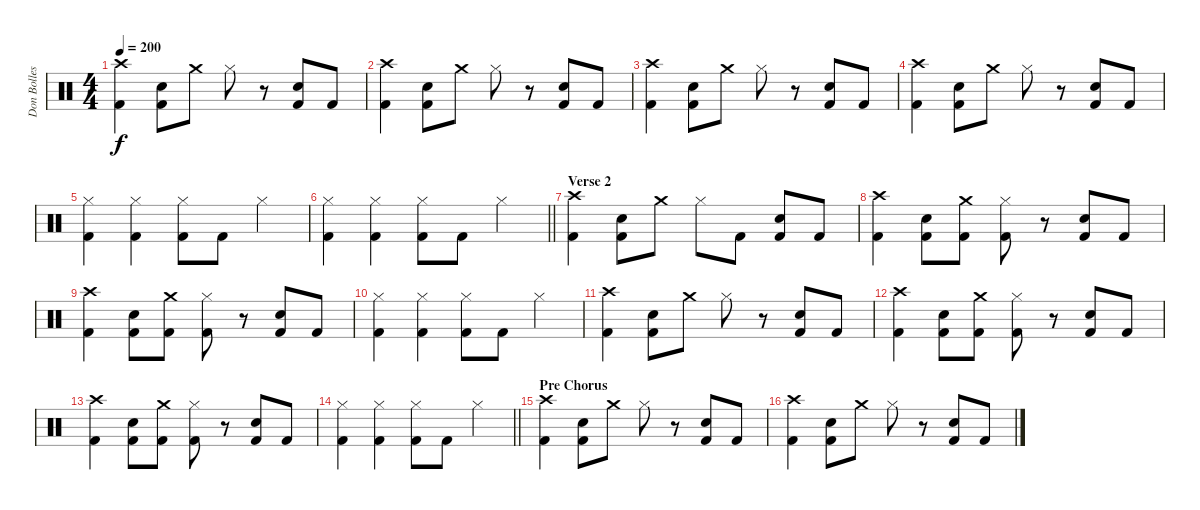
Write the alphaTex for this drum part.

\track ("Don Bolles" "Don Bolles") {instrument percussion}
\staff {score}
\articulation defaults
\ts (4 4)
\tempo 200
\clef neutral
\ks c
("Kick (hit) 2" "Crash high (hit)").4{dy f} ("Snare (hit) 2" "Kick (hit) 2").8 "Crash medium (hit)".8 "Hi-Hat (closed)".8 r.8 ("Kick (hit) 2" "Snare (hit) 2").8 "Kick (hit) 2".8 |
("Kick (hit) 2" "Crash high (hit)").4 ("Snare (hit) 2" "Kick (hit) 2").8 "Crash medium (hit)".8 "Hi-Hat (closed)".8 r.8 ("Kick (hit) 2" "Snare (hit) 2").8 "Kick (hit) 2".8 |
("Kick (hit) 2" "Crash high (hit)").4 ("Snare (hit) 2" "Kick (hit) 2").8 "Crash medium (hit)".8 "Hi-Hat (closed)".8 r.8 ("Kick (hit) 2" "Snare (hit) 2").8 "Kick (hit) 2".8 |
("Kick (hit) 2" "Crash high (hit)").4 ("Snare (hit) 2" "Kick (hit) 2").8 "Crash medium (hit)".8 "Hi-Hat (closed)".8 r.8 ("Kick (hit) 2" "Snare (hit) 2").8 "Kick (hit) 2".8 |
("Kick (hit) 2" "Hi-Hat (closed)").4 ("Kick (hit) 2" "Hi-Hat (closed)").4 ("Kick (hit) 2" "Hi-Hat (closed)").8 "Kick (hit) 2".8 "Hi-Hat (closed)".4 |
\barLineRight lightlight
("Kick (hit) 2" "Hi-Hat (closed)").4 ("Kick (hit) 2" "Hi-Hat (closed)").4 ("Kick (hit) 2" "Hi-Hat (closed)").8 "Kick (hit) 2".8 "Hi-Hat (closed)".4 |
\section ("" "Verse 2")
("Kick (hit) 2" "Crash high (hit)").4 ("Snare (hit) 2" "Kick (hit) 2").8 "Crash medium (hit)".8 "Hi-Hat (closed)".8 "Kick (hit) 2".8 ("Kick (hit) 2" "Snare (hit) 2").8 "Kick (hit) 2".8 |
("Kick (hit) 2" "Crash high (hit)").4 ("Snare (hit) 2" "Kick (hit) 2").8 ("Kick (hit) 2" "Crash medium (hit)").8 ("Kick (hit) 2" "Hi-Hat (closed)").8 r.8 ("Kick (hit) 2" "Snare (hit) 2").8 "Kick (hit) 2".8 |
("Kick (hit) 2" "Crash high (hit)").4 ("Snare (hit) 2" "Kick (hit) 2").8 ("Kick (hit) 2" "Crash medium (hit)").8 ("Kick (hit) 2" "Hi-Hat (closed)").8 r.8 ("Kick (hit) 2" "Snare (hit) 2").8 "Kick (hit) 2".8 |
("Kick (hit) 2" "Hi-Hat (closed)").4 ("Kick (hit) 2" "Hi-Hat (closed)").4 ("Kick (hit) 2" "Hi-Hat (closed)").8 "Kick (hit) 2".8 "Hi-Hat (closed)".4 |
("Kick (hit) 2" "Crash high (hit)").4 ("Snare (hit) 2" "Kick (hit) 2").8 "Crash medium (hit)".8 "Hi-Hat (closed)".8 r.8 ("Kick (hit) 2" "Snare (hit) 2").8 "Kick (hit) 2".8 |
("Kick (hit) 2" "Crash high (hit)").4 ("Snare (hit) 2" "Kick (hit) 2").8 ("Kick (hit) 2" "Crash medium (hit)").8 ("Kick (hit) 2" "Hi-Hat (closed)").8 r.8 ("Kick (hit) 2" "Snare (hit) 2").8 "Kick (hit) 2".8 |
("Kick (hit) 2" "Crash high (hit)").4 ("Snare (hit) 2" "Kick (hit) 2").8 ("Kick (hit) 2" "Crash medium (hit)").8 ("Kick (hit) 2" "Hi-Hat (closed)").8 r.8 ("Kick (hit) 2" "Snare (hit) 2").8 "Kick (hit) 2".8 |
\barLineRight lightlight
("Kick (hit) 2" "Hi-Hat (closed)").4 ("Kick (hit) 2" "Hi-Hat (closed)").4 ("Kick (hit) 2" "Hi-Hat (closed)").8 "Kick (hit) 2".8 "Hi-Hat (closed)".4 |
\section ("" "Pre Chorus")
("Kick (hit) 2" "Crash high (hit)").4 ("Snare (hit) 2" "Kick (hit) 2").8 "Crash medium (hit)".8 "Hi-Hat (closed)".8 r.8 ("Kick (hit) 2" "Snare (hit) 2").8 "Kick (hit) 2".8 |
("Kick (hit) 2" "Crash high (hit)").4 ("Snare (hit) 2" "Kick (hit) 2").8 "Crash medium (hit)".8 "Hi-Hat (closed)".8 r.8 ("Kick (hit) 2" "Snare (hit) 2").8 "Kick (hit) 2".8
